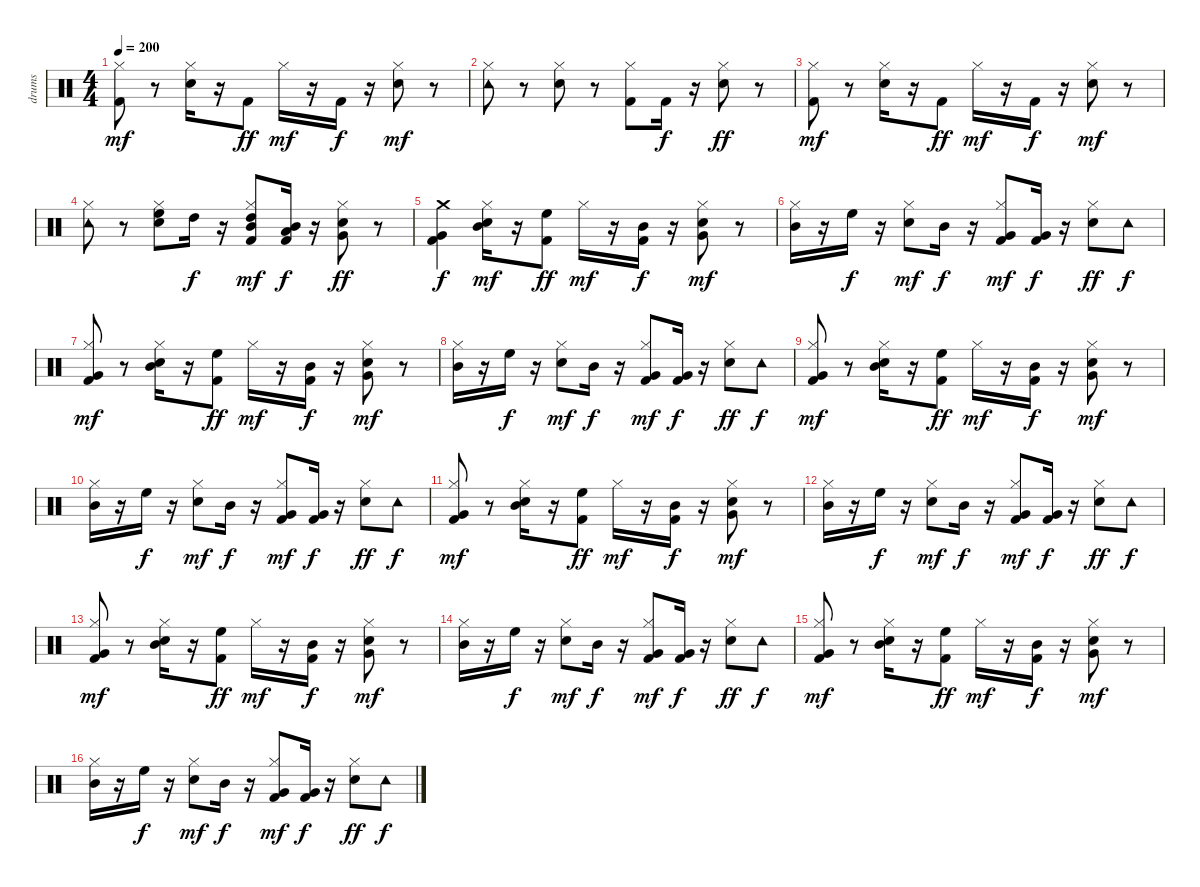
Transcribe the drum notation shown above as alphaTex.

\track ("drums" "drums") {instrument percussion}
\staff {score}
\articulation defaults
\ts (4 4)
\tempo 200
\clef neutral
\ks c
("Kick (hit) 2" "Hi-Hat (closed)").8{dy mf} r.8 ("Snare (hit) 2" "Hi-Hat (closed)").16 r.16 "Kick (hit) 2".8{dy ff} "Hi-Hat (closed)".16{dy mf} r.16 "Kick (hit) 2".16{dy f} r.16 ("Snare (hit) 2" "Hi-Hat (closed)").8{dy mf} r.8 |
("Tambourine (hit)" "Hi-Hat (closed)").8 r.8 ("Snare (hit) 2" "Hi-Hat (closed)").8 r.8 ("Kick (hit) 2" "Hi-Hat (closed)").8 "Kick (hit) 2".16{dy f} r.16 ("Snare (hit) 2" "Hi-Hat (closed)").8{dy ff} r.8 |
("Kick (hit) 2" "Hi-Hat (closed)").8{dy mf} r.8 ("Snare (hit) 2" "Hi-Hat (closed)").16 r.16 "Kick (hit) 2".8{dy ff} "Hi-Hat (closed)".16{dy mf} r.16 "Kick (hit) 2".16{dy f} r.16 ("Snare (hit) 2" "Hi-Hat (closed)").8{dy mf} r.8 |
("Tambourine (hit)" "Hi-Hat (closed)").8 r.8 ("Snare (hit) 2" "Hi-Hat (closed)" "High Floor Tom (hit)").8 "High Tom (hit)".16{dy f} r.16 ("Kick (hit) 2" "Hi-Hat (closed)" "High Tom (hit)" "Mid Tom (hit)").8{dy mf} ("Kick (hit) 2" "Mid Tom (hit)" "Low Tom (hit)").16{dy f} r.16 ("Snare (hit) 2" "Hi-Hat (closed)" "Very Low Tom (hit)").8{dy ff} r.8 |
("Very Low Tom (hit)" "Kick (hit) 2" "Crash medium (hit)").4{dy f} ("Mid Tom (hit)" "Snare (hit) 2" "Hi-Hat (closed)").16{dy mf} r.16 ("High Floor Tom (hit)" "Kick (hit) 2").8{dy ff} "Hi-Hat (closed)".16{dy mf} r.16 ("Mid Tom (hit)" "Kick (hit) 2").16{dy f} r.16 ("Very Low Tom (hit)" "Snare (hit) 2" "Hi-Hat (closed)").8{dy mf} r.8 |
("Mid Tom (hit)" "Hi-Hat (closed)").16 r.16 "High Floor Tom (hit)".16{dy f} r.16 ("Snare (hit) 2" "Hi-Hat (closed)").8{dy mf} "Mid Tom (hit)".16{dy f} r.16 ("Very Low Tom (hit)" "Kick (hit) 2" "Hi-Hat (closed)").8{dy mf} ("Very Low Tom (hit)" "Kick (hit) 2").16{dy f} r.16 ("Snare (hit) 2" "Hi-Hat (closed)").8{dy ff} "Tambourine (hit)".8{dy f} |
("Very Low Tom (hit)" "Kick (hit) 2" "Hi-Hat (closed)").8{dy mf} r.8 ("Mid Tom (hit)" "Snare (hit) 2" "Hi-Hat (closed)").16 r.16 ("High Floor Tom (hit)" "Kick (hit) 2").8{dy ff} "Hi-Hat (closed)".16{dy mf} r.16 ("Mid Tom (hit)" "Kick (hit) 2").16{dy f} r.16 ("Very Low Tom (hit)" "Snare (hit) 2" "Hi-Hat (closed)").8{dy mf} r.8 |
("Mid Tom (hit)" "Hi-Hat (closed)").16 r.16 "High Floor Tom (hit)".16{dy f} r.16 ("Snare (hit) 2" "Hi-Hat (closed)").8{dy mf} "Mid Tom (hit)".16{dy f} r.16 ("Very Low Tom (hit)" "Kick (hit) 2" "Hi-Hat (closed)").8{dy mf} ("Very Low Tom (hit)" "Kick (hit) 2").16{dy f} r.16 ("Snare (hit) 2" "Hi-Hat (closed)").8{dy ff} "Tambourine (hit)".8{dy f} |
("Very Low Tom (hit)" "Kick (hit) 2" "Hi-Hat (closed)").8{dy mf} r.8 ("Mid Tom (hit)" "Snare (hit) 2" "Hi-Hat (closed)").16 r.16 ("High Floor Tom (hit)" "Kick (hit) 2").8{dy ff} "Hi-Hat (closed)".16{dy mf} r.16 ("Mid Tom (hit)" "Kick (hit) 2").16{dy f} r.16 ("Very Low Tom (hit)" "Snare (hit) 2" "Hi-Hat (closed)").8{dy mf} r.8 |
("Mid Tom (hit)" "Hi-Hat (closed)").16 r.16 "High Floor Tom (hit)".16{dy f} r.16 ("Snare (hit) 2" "Hi-Hat (closed)").8{dy mf} "Mid Tom (hit)".16{dy f} r.16 ("Very Low Tom (hit)" "Kick (hit) 2" "Hi-Hat (closed)").8{dy mf} ("Very Low Tom (hit)" "Kick (hit) 2").16{dy f} r.16 ("Snare (hit) 2" "Hi-Hat (closed)").8{dy ff} "Tambourine (hit)".8{dy f} |
("Very Low Tom (hit)" "Kick (hit) 2" "Hi-Hat (closed)").8{dy mf} r.8 ("Mid Tom (hit)" "Snare (hit) 2" "Hi-Hat (closed)").16 r.16 ("High Floor Tom (hit)" "Kick (hit) 2").8{dy ff} "Hi-Hat (closed)".16{dy mf} r.16 ("Mid Tom (hit)" "Kick (hit) 2").16{dy f} r.16 ("Very Low Tom (hit)" "Snare (hit) 2" "Hi-Hat (closed)").8{dy mf} r.8 |
("Mid Tom (hit)" "Hi-Hat (closed)").16 r.16 "High Floor Tom (hit)".16{dy f} r.16 ("Snare (hit) 2" "Hi-Hat (closed)").8{dy mf} "Mid Tom (hit)".16{dy f} r.16 ("Very Low Tom (hit)" "Kick (hit) 2" "Hi-Hat (closed)").8{dy mf} ("Very Low Tom (hit)" "Kick (hit) 2").16{dy f} r.16 ("Snare (hit) 2" "Hi-Hat (closed)").8{dy ff} "Tambourine (hit)".8{dy f} |
("Very Low Tom (hit)" "Kick (hit) 2" "Hi-Hat (closed)").8{dy mf} r.8 ("Mid Tom (hit)" "Snare (hit) 2" "Hi-Hat (closed)").16 r.16 ("High Floor Tom (hit)" "Kick (hit) 2").8{dy ff} "Hi-Hat (closed)".16{dy mf} r.16 ("Mid Tom (hit)" "Kick (hit) 2").16{dy f} r.16 ("Very Low Tom (hit)" "Snare (hit) 2" "Hi-Hat (closed)").8{dy mf} r.8 |
("Mid Tom (hit)" "Hi-Hat (closed)").16 r.16 "High Floor Tom (hit)".16{dy f} r.16 ("Snare (hit) 2" "Hi-Hat (closed)").8{dy mf} "Mid Tom (hit)".16{dy f} r.16 ("Very Low Tom (hit)" "Kick (hit) 2" "Hi-Hat (closed)").8{dy mf} ("Very Low Tom (hit)" "Kick (hit) 2").16{dy f} r.16 ("Snare (hit) 2" "Hi-Hat (closed)").8{dy ff} "Tambourine (hit)".8{dy f} |
("Very Low Tom (hit)" "Kick (hit) 2" "Hi-Hat (closed)").8{dy mf} r.8 ("Mid Tom (hit)" "Snare (hit) 2" "Hi-Hat (closed)").16 r.16 ("High Floor Tom (hit)" "Kick (hit) 2").8{dy ff} "Hi-Hat (closed)".16{dy mf} r.16 ("Mid Tom (hit)" "Kick (hit) 2").16{dy f} r.16 ("Very Low Tom (hit)" "Snare (hit) 2" "Hi-Hat (closed)").8{dy mf} r.8 |
("Mid Tom (hit)" "Hi-Hat (closed)").16 r.16 "High Floor Tom (hit)".16{dy f} r.16 ("Snare (hit) 2" "Hi-Hat (closed)").8{dy mf} "Mid Tom (hit)".16{dy f} r.16 ("Very Low Tom (hit)" "Kick (hit) 2" "Hi-Hat (closed)").8{dy mf} ("Very Low Tom (hit)" "Kick (hit) 2").16{dy f} r.16 ("Snare (hit) 2" "Hi-Hat (closed)").8{dy ff} "Tambourine (hit)".8{dy f}
